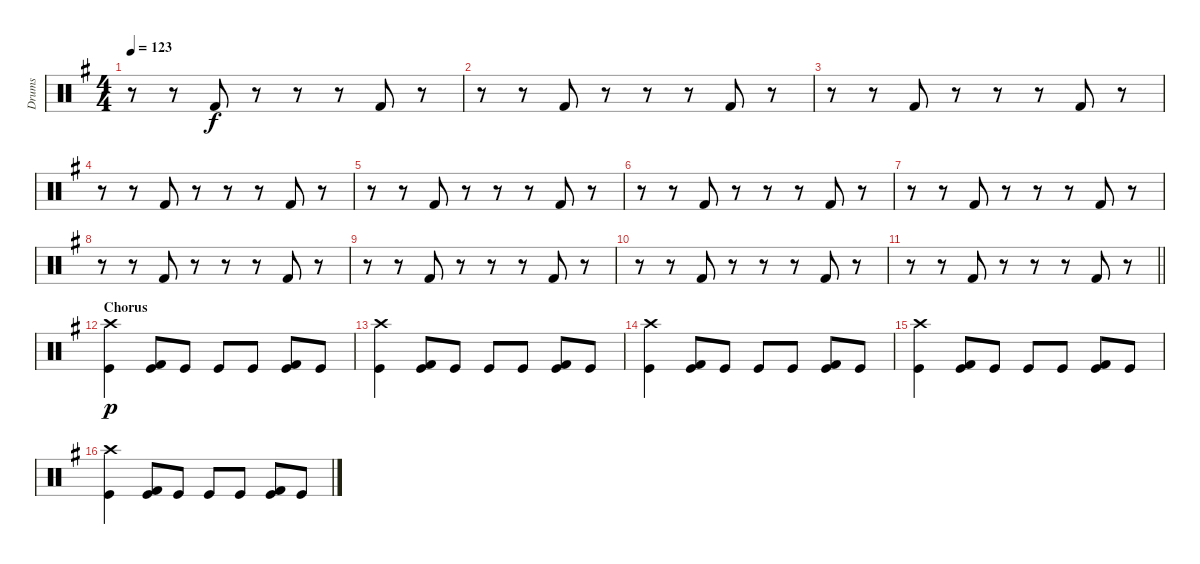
\track ("Drums" "Drums") {instrument percussion}
\staff {score}
\articulation defaults
\ts (4 4)
\tempo 123
\clef neutral
\ks g
r.8{dy f} r.8 "Kick (hit) 2".8 r.8 r.8 r.8 "Kick (hit) 2".8 r.8 |
r.8 r.8 "Kick (hit) 2".8 r.8 r.8 r.8 "Kick (hit) 2".8 r.8 |
r.8 r.8 "Kick (hit) 2".8 r.8 r.8 r.8 "Kick (hit) 2".8 r.8 |
r.8 r.8 "Kick (hit) 2".8 r.8 r.8 r.8 "Kick (hit) 2".8 r.8 |
r.8 r.8 "Kick (hit) 2".8 r.8 r.8 r.8 "Kick (hit) 2".8 r.8 |
r.8 r.8 "Kick (hit) 2".8 r.8 r.8 r.8 "Kick (hit) 2".8 r.8 |
r.8 r.8 "Kick (hit) 2".8 r.8 r.8 r.8 "Kick (hit) 2".8 r.8 |
r.8 r.8 "Kick (hit) 2".8 r.8 r.8 r.8 "Kick (hit) 2".8 r.8 |
r.8 r.8 "Kick (hit) 2".8 r.8 r.8 r.8 "Kick (hit) 2".8 r.8 |
r.8 r.8 "Kick (hit) 2".8 r.8 r.8 r.8 "Kick (hit) 2".8 r.8 |
\barLineRight lightlight
r.8 r.8 "Kick (hit) 2".8 r.8 r.8 r.8 "Kick (hit) 2".8 r.8 |
\section ("" "Chorus")
("Crash high (hit)" "Kick (hit)").4{dy p} ("Kick (hit) 2" "Kick (hit)").8 "Kick (hit)".8 "Kick (hit)".8 "Kick (hit)".8 ("Kick (hit) 2" "Kick (hit)").8 "Kick (hit)".8 |
("Crash high (hit)" "Kick (hit)").4 ("Kick (hit) 2" "Kick (hit)").8 "Kick (hit)".8 "Kick (hit)".8 "Kick (hit)".8 ("Kick (hit) 2" "Kick (hit)").8 "Kick (hit)".8 |
("Crash high (hit)" "Kick (hit)").4 ("Kick (hit) 2" "Kick (hit)").8 "Kick (hit)".8 "Kick (hit)".8 "Kick (hit)".8 ("Kick (hit) 2" "Kick (hit)").8 "Kick (hit)".8 |
("Crash high (hit)" "Kick (hit)").4 ("Kick (hit) 2" "Kick (hit)").8 "Kick (hit)".8 "Kick (hit)".8 "Kick (hit)".8 ("Kick (hit) 2" "Kick (hit)").8 "Kick (hit)".8 |
("Crash high (hit)" "Kick (hit)").4 ("Kick (hit) 2" "Kick (hit)").8 "Kick (hit)".8 "Kick (hit)".8 "Kick (hit)".8 ("Kick (hit) 2" "Kick (hit)").8 "Kick (hit)".8
